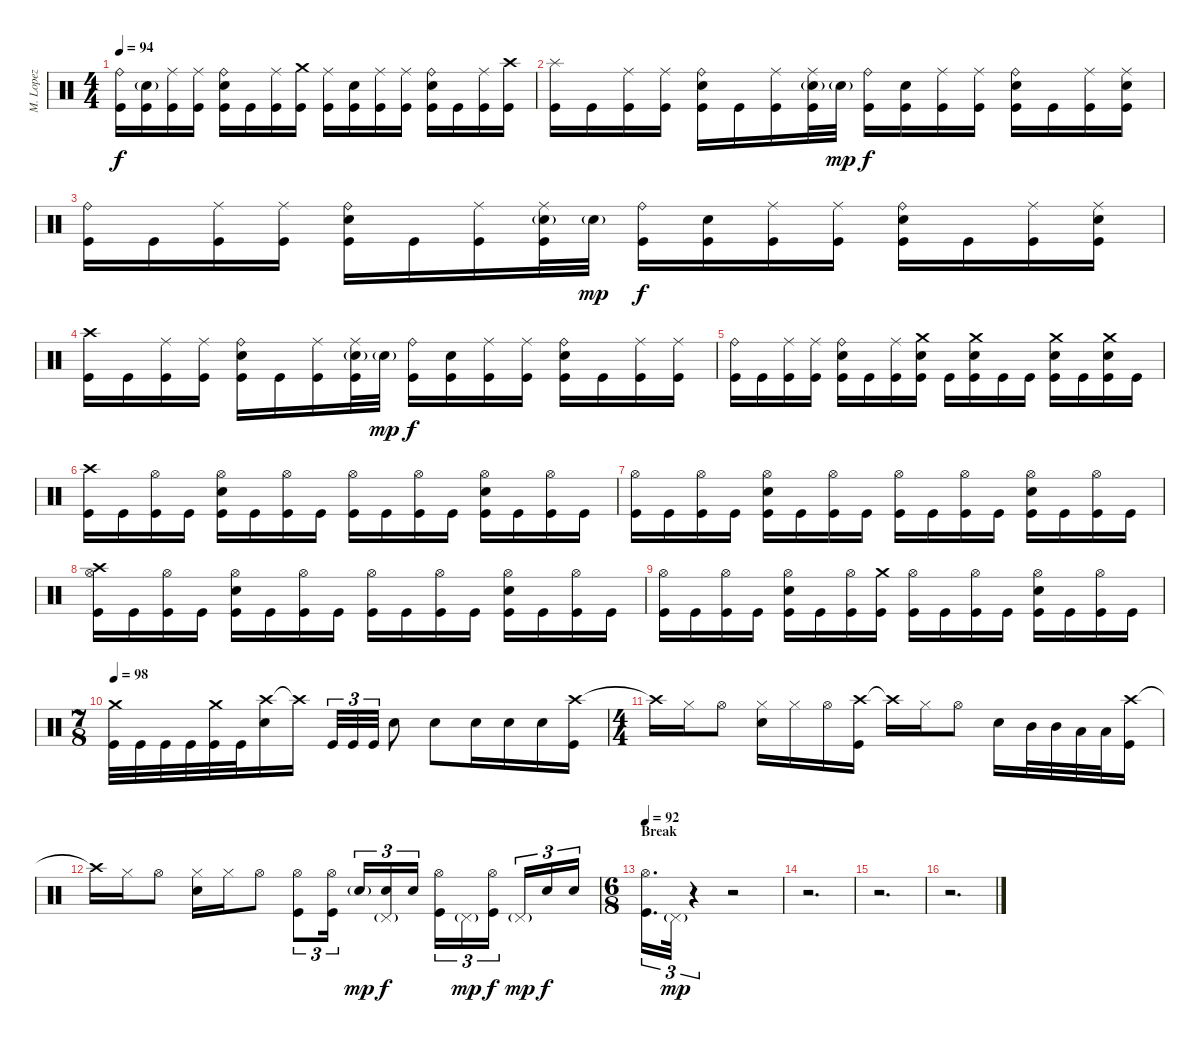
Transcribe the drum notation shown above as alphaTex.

\track ("M. Lopez" "M. Lopez") {instrument percussion}
\staff {score}
\articulation defaults
\ts (4 4)
\tempo 94
\clef neutral
\ks c
("Ride (bell)" "Kick (hit)").16{dy f} ("Electric Snare (hit)"{g} "Kick (hit)").16 ("Ride (middle)" "Kick (hit)").16 ("Ride (middle)" "Kick (hit)").16 ("Ride (bell)" "Electric Snare (hit)" "Kick (hit)").16 "Kick (hit)".16 ("Ride (middle)" "Kick (hit)").16 ("Crash medium (hit)" "Kick (hit)").16 ("Ride (middle)" "Kick (hit)").16 ("Electric Snare (hit)" "Kick (hit)").16 ("Ride (middle)" "Kick (hit)").16 ("Ride (middle)" "Kick (hit)").16 ("Ride (bell)" "Electric Snare (hit)" "Kick (hit)").16 "Kick (hit)".16 ("Ride (middle)" "Kick (hit)").16 ("Crash high (hit)" "Kick (hit)").16 |
("Splash (hit)" "Kick (hit)").16 "Kick (hit)".16 ("Ride (middle)" "Kick (hit)").16 ("Ride (middle)" "Kick (hit)").16 ("Ride (bell)" "Electric Snare (hit)" "Kick (hit)").16 "Kick (hit)".16 ("Ride (middle)" "Kick (hit)").16 ("Ride (middle)" "Electric Snare (hit)"{g} "Kick (hit)").32 "Electric Snare (hit)"{g}.32{dy mp} ("Ride (bell)" "Kick (hit)").16{dy f} ("Electric Snare (hit)" "Kick (hit)").16 ("Ride (middle)" "Kick (hit)").16 ("Ride (middle)" "Kick (hit)").16 ("Ride (bell)" "Electric Snare (hit)" "Kick (hit)").16 "Kick (hit)".16 ("Ride (middle)" "Kick (hit)").16 ("Ride (middle)" "Electric Snare (hit)" "Kick (hit)").16 |
("Ride (bell)" "Kick (hit)").16 "Kick (hit)".16 ("Ride (middle)" "Kick (hit)").16 ("Ride (middle)" "Kick (hit)").16 ("Ride (bell)" "Electric Snare (hit)" "Kick (hit)").16 "Kick (hit)".16 ("Ride (middle)" "Kick (hit)").16 ("Ride (middle)" "Electric Snare (hit)"{g} "Kick (hit)").32 "Electric Snare (hit)"{g}.32{dy mp} ("Ride (bell)" "Kick (hit)").16{dy f} ("Electric Snare (hit)" "Kick (hit)").16 ("Ride (middle)" "Kick (hit)").16 ("Ride (middle)" "Kick (hit)").16 ("Ride (bell)" "Electric Snare (hit)" "Kick (hit)").16 "Kick (hit)".16 ("Ride (middle)" "Kick (hit)").16 ("Ride (middle)" "Electric Snare (hit)" "Kick (hit)").16 |
("Crash high (hit)" "Kick (hit)").16 "Kick (hit)".16 ("Ride (middle)" "Kick (hit)").16 ("Ride (middle)" "Kick (hit)").16 ("Ride (bell)" "Electric Snare (hit)" "Kick (hit)").16 "Kick (hit)".16 ("Ride (middle)" "Kick (hit)").16 ("Ride (middle)" "Electric Snare (hit)"{g} "Kick (hit)").32 "Electric Snare (hit)"{g}.32{dy mp} ("Ride (bell)" "Kick (hit)").16{dy f} ("Electric Snare (hit)" "Kick (hit)").16 ("Ride (middle)" "Kick (hit)").16 ("Ride (middle)" "Kick (hit)").16 ("Ride (bell)" "Electric Snare (hit)" "Kick (hit)").16 "Kick (hit)".16 ("Ride (middle)" "Kick (hit)").16 ("Ride (middle)" "Kick (hit)").16 |
("Ride (bell)" "Kick (hit)").16 "Kick (hit)".16 ("Ride (middle)" "Kick (hit)").16 ("Ride (middle)" "Kick (hit)").16 ("Ride (bell)" "Electric Snare (hit)" "Kick (hit)").16 "Kick (hit)".16 ("Ride (middle)" "Kick (hit)").16 ("Crash medium (hit)" "Electric Snare (hit)" "Kick (hit)").16 "Kick (hit)".16 ("Crash medium (hit)" "Electric Snare (hit)" "Kick (hit)").16 "Kick (hit)".16 "Kick (hit)".16 ("Crash medium (hit)" "Electric Snare (hit)" "Kick (hit)").16 "Kick (hit)".16 ("Crash medium (hit)" "Electric Snare (hit)" "Kick (hit)").16 "Kick (hit)".16 |
("Crash high (hit)" "Kick (hit)").16 "Kick (hit)".16 ("Hi-Hat (open)" "Kick (hit)").16 "Kick (hit)".16 ("Hi-Hat (open)" "Electric Snare (hit)" "Kick (hit)").16 "Kick (hit)".16 ("Hi-Hat (open)" "Kick (hit)").16 "Kick (hit)".16 ("Hi-Hat (open)" "Kick (hit)").16 "Kick (hit)".16 ("Hi-Hat (open)" "Kick (hit)").16 "Kick (hit)".16 ("Hi-Hat (open)" "Electric Snare (hit)" "Kick (hit)").16 "Kick (hit)".16 ("Hi-Hat (open)" "Kick (hit)").16 "Kick (hit)".16 |
("Hi-Hat (open)" "Kick (hit)").16 "Kick (hit)".16 ("Hi-Hat (open)" "Kick (hit)").16 "Kick (hit)".16 ("Hi-Hat (open)" "Electric Snare (hit)" "Kick (hit)").16 "Kick (hit)".16 ("Hi-Hat (open)" "Kick (hit)").16 "Kick (hit)".16 ("Hi-Hat (open)" "Kick (hit)").16 "Kick (hit)".16 ("Hi-Hat (open)" "Kick (hit)").16 "Kick (hit)".16 ("Hi-Hat (open)" "Electric Snare (hit)" "Kick (hit)").16 "Kick (hit)".16 ("Hi-Hat (open)" "Kick (hit)").16 "Kick (hit)".16 |
("Crash high (hit)" "Hi-Hat (open)" "Kick (hit)").16 "Kick (hit)".16 ("Hi-Hat (open)" "Kick (hit)").16 "Kick (hit)".16 ("Hi-Hat (open)" "Electric Snare (hit)" "Kick (hit)").16 "Kick (hit)".16 ("Hi-Hat (open)" "Kick (hit)").16 "Kick (hit)".16 ("Hi-Hat (open)" "Kick (hit)").16 "Kick (hit)".16 ("Hi-Hat (open)" "Kick (hit)").16 "Kick (hit)".16 ("Hi-Hat (open)" "Electric Snare (hit)" "Kick (hit)").16 "Kick (hit)".16 ("Hi-Hat (open)" "Kick (hit)").16 "Kick (hit)".16 |
("Hi-Hat (open)" "Kick (hit)").16 "Kick (hit)".16 ("Hi-Hat (open)" "Kick (hit)").16 "Kick (hit)".16 ("Hi-Hat (open)" "Electric Snare (hit)" "Kick (hit)").16 "Kick (hit)".16 ("Hi-Hat (open)" "Kick (hit)").16 ("Crash medium (hit)" "Kick (hit)").16 ("Hi-Hat (open)" "Kick (hit)").16 "Kick (hit)".16 ("Hi-Hat (open)" "Kick (hit)").16 "Kick (hit)".16 ("Hi-Hat (open)" "Electric Snare (hit)" "Kick (hit)").16 "Kick (hit)".16 ("Hi-Hat (open)" "Kick (hit)").16 "Kick (hit)".16 |
\ts (7 8)
\tempo 98
("Crash medium (hit)" "Kick (hit)").32 "Kick (hit)".32 "Kick (hit)".32 "Kick (hit)".32 ("Crash medium (hit)" "Kick (hit)").32 "Kick (hit)".32 ("Crash high (hit)" "Electric Snare (hit)").16 "Crash high (hit)"{t}.16 "Kick (hit)".32{tu (3 2)} "Kick (hit)".32{tu (3 2)} "Kick (hit)".32{tu (3 2)} "Electric Snare (hit)".8 "Electric Snare (hit)".8 "Electric Snare (hit)".16 "Electric Snare (hit)".16 "Electric Snare (hit)".16 ("Crash high (hit)" "Kick (hit)").16 |
\ts (4 4)
"Crash high (hit)"{t}.16 "Hi-Hat (closed)".16 "Hi-Hat (open)".8 ("Hi-Hat (closed)" "Electric Snare (hit)").16 "Hi-Hat (closed)".16 "Hi-Hat (open)".16 ("Crash high (hit)" "Kick (hit)").16 "Crash high (hit)"{t}.16 "Hi-Hat (closed)".16 "Hi-Hat (open)".8 "Electric Snare (hit)".16 "Mid Tom (hit)".32 "Mid Tom (hit)".32 "Low Tom (hit)".32 "Low Tom (hit)".32 ("Crash high (hit)" "Kick (hit)").16 |
"Crash high (hit)"{t}.16 "Hi-Hat (closed)".16 "Hi-Hat (open)".8 ("Hi-Hat (closed)" "Electric Snare (hit)").16 "Hi-Hat (closed)".16 "Hi-Hat (open)".8 ("Hi-Hat (open)" "Kick (hit)").8{tu (3 2)} ("Hi-Hat (open)" "Kick (hit)").16{tu (3 2)} "Electric Snare (hit)"{g}.16{tu (3 2) dy mp} ("Pedal Hi-Hat (hit)"{g} "Electric Snare (hit)").16{tu (3 2) dy f} "Electric Snare (hit)".16{tu (3 2)} ("Hi-Hat (open)" "Kick (hit)").16{tu (3 2)} "Pedal Hi-Hat (hit)"{g}.16{tu (3 2) dy mp} ("Hi-Hat (open)" "Kick (hit)").16{tu (3 2) dy f} "Pedal Hi-Hat (hit)"{g}.16{tu (3 2) dy mp} "Electric Snare (hit)".16{tu (3 2) dy f} "Electric Snare (hit)".16{tu (3 2)} |
\ts (6 8)
\section ("" "Break")
\tempo 92
("Hi-Hat (open)" "Kick (hit)").16{d tu (3 2)} "Pedal Hi-Hat (hit)"{g}.32{tu (3 2) dy mp} r.4{tu (3 2)} r.2 |
r.2{d} |
r.2{d} |
r.2{d}
